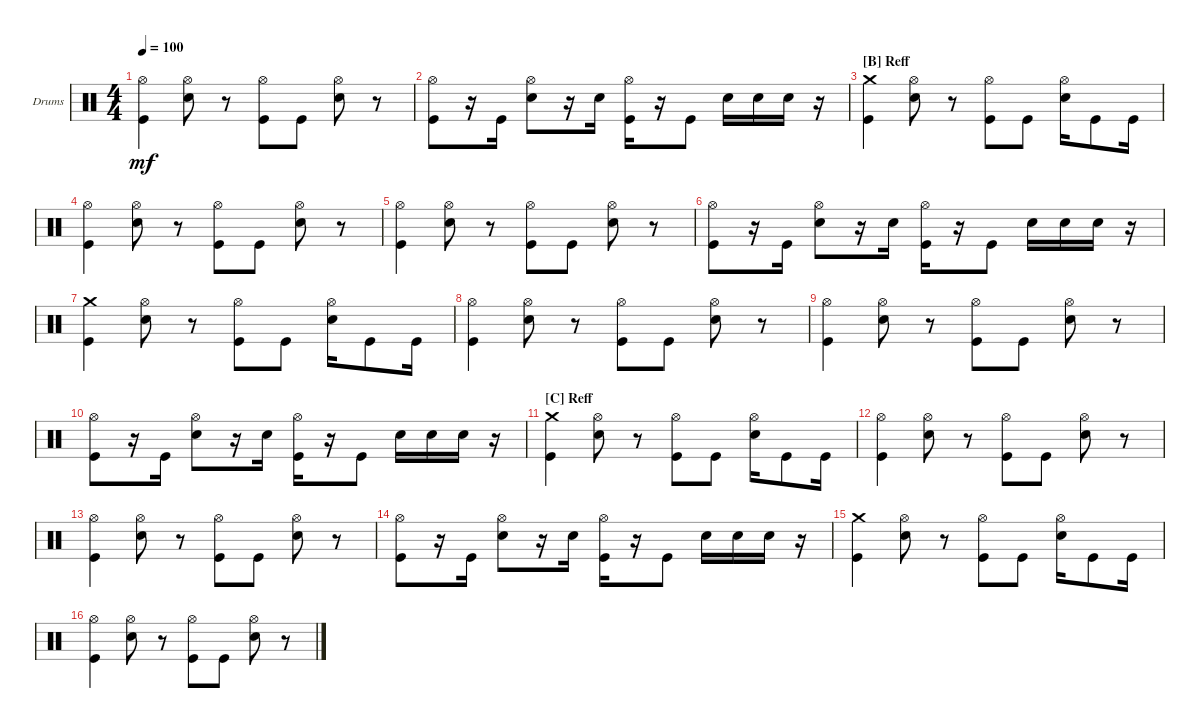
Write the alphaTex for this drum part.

\defaultSystemsLayout 4
\bracketExtendMode groupsimilarinstruments
\firstSystemTrackNameOrientation horizontal
\otherSystemsTrackNameOrientation horizontal
\track ("Drumkit" "Drums") {instrument percussion}
\staff {score}
\articulation defaults
\ts (4 4)
\tempo 100
\clef neutral
\ks c
("Kick (hit)" "Hi-Hat (open)").4{dy mf} ("Snare (hit) 2" "Hi-Hat (open)").8 r.8 ("Kick (hit)" "Hi-Hat (open)").8 "Kick (hit)".8 ("Snare (hit) 2" "Hi-Hat (open)").8 r.8 |
("Kick (hit)" "Hi-Hat (open)").8 r.16 "Kick (hit)".16 ("Snare (hit) 2" "Hi-Hat (open)").8 r.16 "Snare (hit) 2".16 ("Kick (hit)" "Hi-Hat (open)").16 r.16 "Kick (hit)".8 "Snare (hit) 2".16 "Snare (hit) 2".16 "Snare (hit) 2".16 r.16 |
\section ("B" "Reff")
("Kick (hit)" "Crash medium (hit)").4 ("Snare (hit) 2" "Hi-Hat (open)").8 r.8 ("Hi-Hat (open)" "Kick (hit)").8 "Kick (hit)".8 ("Snare (hit) 2" "Hi-Hat (open)").16 "Kick (hit)".8 "Kick (hit)".16 |
("Kick (hit)" "Hi-Hat (open)").4 ("Snare (hit) 2" "Hi-Hat (open)").8 r.8 ("Kick (hit)" "Hi-Hat (open)").8 "Kick (hit)".8 ("Snare (hit) 2" "Hi-Hat (open)").8 r.8 |
("Kick (hit)" "Hi-Hat (open)").4 ("Snare (hit) 2" "Hi-Hat (open)").8 r.8 ("Kick (hit)" "Hi-Hat (open)").8 "Kick (hit)".8 ("Snare (hit) 2" "Hi-Hat (open)").8 r.8 |
("Kick (hit)" "Hi-Hat (open)").8 r.16 "Kick (hit)".16 ("Snare (hit) 2" "Hi-Hat (open)").8 r.16 "Snare (hit) 2".16 ("Kick (hit)" "Hi-Hat (open)").16 r.16 "Kick (hit)".8 "Snare (hit) 2".16 "Snare (hit) 2".16 "Snare (hit) 2".16 r.16 |
("Kick (hit)" "Crash medium (hit)").4 ("Snare (hit) 2" "Hi-Hat (open)").8 r.8 ("Hi-Hat (open)" "Kick (hit)").8 "Kick (hit)".8 ("Snare (hit) 2" "Hi-Hat (open)").16 "Kick (hit)".8 "Kick (hit)".16 |
("Kick (hit)" "Hi-Hat (open)").4 ("Snare (hit) 2" "Hi-Hat (open)").8 r.8 ("Kick (hit)" "Hi-Hat (open)").8 "Kick (hit)".8 ("Snare (hit) 2" "Hi-Hat (open)").8 r.8 |
("Kick (hit)" "Hi-Hat (open)").4 ("Snare (hit) 2" "Hi-Hat (open)").8 r.8 ("Kick (hit)" "Hi-Hat (open)").8 "Kick (hit)".8 ("Snare (hit) 2" "Hi-Hat (open)").8 r.8 |
("Kick (hit)" "Hi-Hat (open)").8 r.16 "Kick (hit)".16 ("Snare (hit) 2" "Hi-Hat (open)").8 r.16 "Snare (hit) 2".16 ("Kick (hit)" "Hi-Hat (open)").16 r.16 "Kick (hit)".8 "Snare (hit) 2".16 "Snare (hit) 2".16 "Snare (hit) 2".16 r.16 |
\section ("C" "Reff")
("Kick (hit)" "Crash medium (hit)").4 ("Snare (hit) 2" "Hi-Hat (open)").8 r.8 ("Hi-Hat (open)" "Kick (hit)").8 "Kick (hit)".8 ("Snare (hit) 2" "Hi-Hat (open)").16 "Kick (hit)".8 "Kick (hit)".16 |
("Kick (hit)" "Hi-Hat (open)").4 ("Snare (hit) 2" "Hi-Hat (open)").8 r.8 ("Kick (hit)" "Hi-Hat (open)").8 "Kick (hit)".8 ("Snare (hit) 2" "Hi-Hat (open)").8 r.8 |
("Kick (hit)" "Hi-Hat (open)").4 ("Snare (hit) 2" "Hi-Hat (open)").8 r.8 ("Kick (hit)" "Hi-Hat (open)").8 "Kick (hit)".8 ("Snare (hit) 2" "Hi-Hat (open)").8 r.8 |
("Kick (hit)" "Hi-Hat (open)").8 r.16 "Kick (hit)".16 ("Snare (hit) 2" "Hi-Hat (open)").8 r.16 "Snare (hit) 2".16 ("Kick (hit)" "Hi-Hat (open)").16 r.16 "Kick (hit)".8 "Snare (hit) 2".16 "Snare (hit) 2".16 "Snare (hit) 2".16 r.16 |
("Kick (hit)" "Crash medium (hit)").4 ("Snare (hit) 2" "Hi-Hat (open)").8 r.8 ("Hi-Hat (open)" "Kick (hit)").8 "Kick (hit)".8 ("Snare (hit) 2" "Hi-Hat (open)").16 "Kick (hit)".8 "Kick (hit)".16 |
("Kick (hit)" "Hi-Hat (open)").4 ("Snare (hit) 2" "Hi-Hat (open)").8 r.8 ("Kick (hit)" "Hi-Hat (open)").8 "Kick (hit)".8 ("Snare (hit) 2" "Hi-Hat (open)").8 r.8
